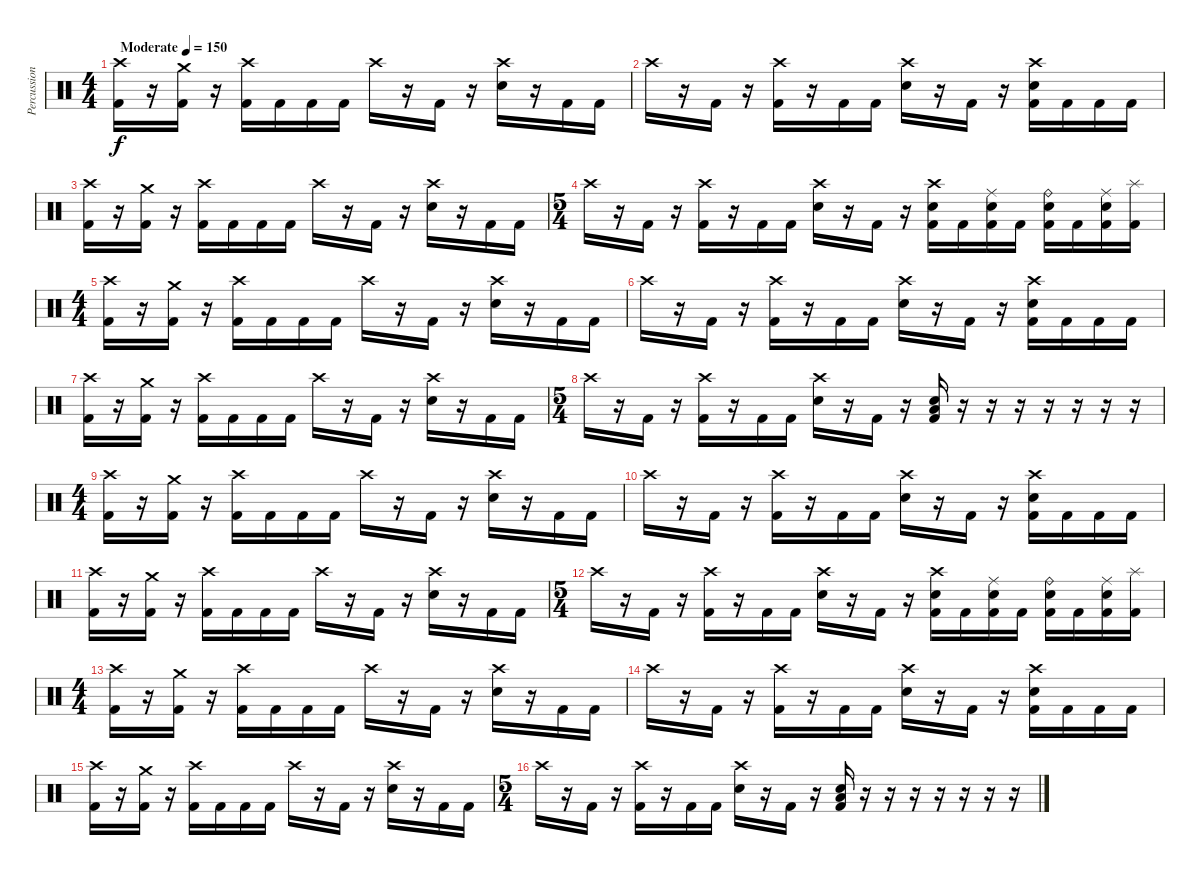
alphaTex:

\track ("Percussion" "Percussion") {instrument percussion}
\staff {score}
\articulation defaults
\ts (4 4)
\tempo (150 "Moderate")
\clef neutral
\ks c
("Crash high (hit)" "Kick (hit) 2").16{dy f} r.16 ("Crash medium (hit)" "Kick (hit) 2").16 r.16 ("Crash high (hit)" "Kick (hit) 2").16 "Kick (hit) 2".16 "Kick (hit) 2".16 "Kick (hit) 2".16 "Crash high (hit)".16 r.16 "Kick (hit) 2".16 r.16 ("Crash high (hit)" "Snare (hit) 2").16 r.16 "Kick (hit) 2".16 "Kick (hit) 2".16 |
"Crash high (hit)".16 r.16 "Kick (hit) 2".16 r.16 ("Crash high (hit)" "Kick (hit) 2").16 r.16 "Kick (hit) 2".16 "Kick (hit) 2".16 ("Crash high (hit)" "Snare (hit) 2").16 r.16 "Kick (hit) 2".16 r.16 ("Crash high (hit)" "Snare (hit) 2" "Kick (hit) 2").16 "Kick (hit) 2".16 "Kick (hit) 2".16 "Kick (hit) 2".16 |
("Crash high (hit)" "Kick (hit) 2").16 r.16 ("Crash medium (hit)" "Kick (hit) 2").16 r.16 ("Crash high (hit)" "Kick (hit) 2").16 "Kick (hit) 2".16 "Kick (hit) 2".16 "Kick (hit) 2".16 "Crash high (hit)".16 r.16 "Kick (hit) 2".16 r.16 ("Crash high (hit)" "Snare (hit) 2").16 r.16 "Kick (hit) 2".16 "Kick (hit) 2".16 |
\ts (5 4)
"Crash high (hit)".16 r.16 "Kick (hit) 2".16 r.16 ("Crash high (hit)" "Kick (hit) 2").16 r.16 "Kick (hit) 2".16 "Kick (hit) 2".16 ("Crash high (hit)" "Snare (hit) 2").16 r.16 "Kick (hit) 2".16 r.16 ("Crash high (hit)" "Snare (hit) 2" "Kick (hit) 2").16 "Kick (hit) 2".16 ("Ride (middle)" "Snare (hit) 2" "Kick (hit) 2").16 "Kick (hit) 2".16 ("Ride (bell)" "Snare (hit) 2" "Kick (hit) 2").16 "Kick (hit) 2".16 ("Ride (middle)" "Snare (hit) 2" "Kick (hit) 2").16 ("Splash (hit)" "Kick (hit) 2").16 |
\ts (4 4)
("Crash high (hit)" "Kick (hit) 2").16 r.16 ("Crash medium (hit)" "Kick (hit) 2").16 r.16 ("Crash high (hit)" "Kick (hit) 2").16 "Kick (hit) 2".16 "Kick (hit) 2".16 "Kick (hit) 2".16 "Crash high (hit)".16 r.16 "Kick (hit) 2".16 r.16 ("Crash high (hit)" "Snare (hit) 2").16 r.16 "Kick (hit) 2".16 "Kick (hit) 2".16 |
"Crash high (hit)".16 r.16 "Kick (hit) 2".16 r.16 ("Crash high (hit)" "Kick (hit) 2").16 r.16 "Kick (hit) 2".16 "Kick (hit) 2".16 ("Crash high (hit)" "Snare (hit) 2").16 r.16 "Kick (hit) 2".16 r.16 ("Crash high (hit)" "Snare (hit) 2" "Kick (hit) 2").16 "Kick (hit) 2".16 "Kick (hit) 2".16 "Kick (hit) 2".16 |
("Crash high (hit)" "Kick (hit) 2").16 r.16 ("Crash medium (hit)" "Kick (hit) 2").16 r.16 ("Crash high (hit)" "Kick (hit) 2").16 "Kick (hit) 2".16 "Kick (hit) 2".16 "Kick (hit) 2".16 "Crash high (hit)".16 r.16 "Kick (hit) 2".16 r.16 ("Crash high (hit)" "Snare (hit) 2").16 r.16 "Kick (hit) 2".16 "Kick (hit) 2".16 |
\ts (5 4)
"Crash high (hit)".16 r.16 "Kick (hit) 2".16 r.16 ("Crash high (hit)" "Kick (hit) 2").16 r.16 "Kick (hit) 2".16 "Kick (hit) 2".16 ("Crash high (hit)" "Snare (hit) 2").16 r.16 "Kick (hit) 2".16 r.16 ("Low Floor Tom (hit)" "Snare (hit) 2" "Kick (hit) 2").16 r.16 r.16 r.16 r.16 r.16 r.16 r.16 |
\ts (4 4)
("Crash high (hit)" "Kick (hit) 2").16 r.16 ("Crash medium (hit)" "Kick (hit) 2").16 r.16 ("Crash high (hit)" "Kick (hit) 2").16 "Kick (hit) 2".16 "Kick (hit) 2".16 "Kick (hit) 2".16 "Crash high (hit)".16 r.16 "Kick (hit) 2".16 r.16 ("Crash high (hit)" "Snare (hit) 2").16 r.16 "Kick (hit) 2".16 "Kick (hit) 2".16 |
"Crash high (hit)".16 r.16 "Kick (hit) 2".16 r.16 ("Crash high (hit)" "Kick (hit) 2").16 r.16 "Kick (hit) 2".16 "Kick (hit) 2".16 ("Crash high (hit)" "Snare (hit) 2").16 r.16 "Kick (hit) 2".16 r.16 ("Crash high (hit)" "Snare (hit) 2" "Kick (hit) 2").16 "Kick (hit) 2".16 "Kick (hit) 2".16 "Kick (hit) 2".16 |
("Crash high (hit)" "Kick (hit) 2").16 r.16 ("Crash medium (hit)" "Kick (hit) 2").16 r.16 ("Crash high (hit)" "Kick (hit) 2").16 "Kick (hit) 2".16 "Kick (hit) 2".16 "Kick (hit) 2".16 "Crash high (hit)".16 r.16 "Kick (hit) 2".16 r.16 ("Crash high (hit)" "Snare (hit) 2").16 r.16 "Kick (hit) 2".16 "Kick (hit) 2".16 |
\ts (5 4)
"Crash high (hit)".16 r.16 "Kick (hit) 2".16 r.16 ("Crash high (hit)" "Kick (hit) 2").16 r.16 "Kick (hit) 2".16 "Kick (hit) 2".16 ("Crash high (hit)" "Snare (hit) 2").16 r.16 "Kick (hit) 2".16 r.16 ("Crash high (hit)" "Snare (hit) 2" "Kick (hit) 2").16 "Kick (hit) 2".16 ("Ride (middle)" "Snare (hit) 2" "Kick (hit) 2").16 "Kick (hit) 2".16 ("Ride (bell)" "Snare (hit) 2" "Kick (hit) 2").16 "Kick (hit) 2".16 ("Ride (middle)" "Snare (hit) 2" "Kick (hit) 2").16 ("Splash (hit)" "Kick (hit) 2").16 |
\ts (4 4)
("Crash high (hit)" "Kick (hit) 2").16 r.16 ("Crash medium (hit)" "Kick (hit) 2").16 r.16 ("Crash high (hit)" "Kick (hit) 2").16 "Kick (hit) 2".16 "Kick (hit) 2".16 "Kick (hit) 2".16 "Crash high (hit)".16 r.16 "Kick (hit) 2".16 r.16 ("Crash high (hit)" "Snare (hit) 2").16 r.16 "Kick (hit) 2".16 "Kick (hit) 2".16 |
"Crash high (hit)".16 r.16 "Kick (hit) 2".16 r.16 ("Crash high (hit)" "Kick (hit) 2").16 r.16 "Kick (hit) 2".16 "Kick (hit) 2".16 ("Crash high (hit)" "Snare (hit) 2").16 r.16 "Kick (hit) 2".16 r.16 ("Crash high (hit)" "Snare (hit) 2" "Kick (hit) 2").16 "Kick (hit) 2".16 "Kick (hit) 2".16 "Kick (hit) 2".16 |
("Crash high (hit)" "Kick (hit) 2").16 r.16 ("Crash medium (hit)" "Kick (hit) 2").16 r.16 ("Crash high (hit)" "Kick (hit) 2").16 "Kick (hit) 2".16 "Kick (hit) 2".16 "Kick (hit) 2".16 "Crash high (hit)".16 r.16 "Kick (hit) 2".16 r.16 ("Crash high (hit)" "Snare (hit) 2").16 r.16 "Kick (hit) 2".16 "Kick (hit) 2".16 |
\ts (5 4)
"Crash high (hit)".16 r.16 "Kick (hit) 2".16 r.16 ("Crash high (hit)" "Kick (hit) 2").16 r.16 "Kick (hit) 2".16 "Kick (hit) 2".16 ("Crash high (hit)" "Snare (hit) 2").16 r.16 "Kick (hit) 2".16 r.16 ("Low Floor Tom (hit)" "Snare (hit) 2" "Kick (hit) 2").16 r.16 r.16 r.16 r.16 r.16 r.16 r.16
